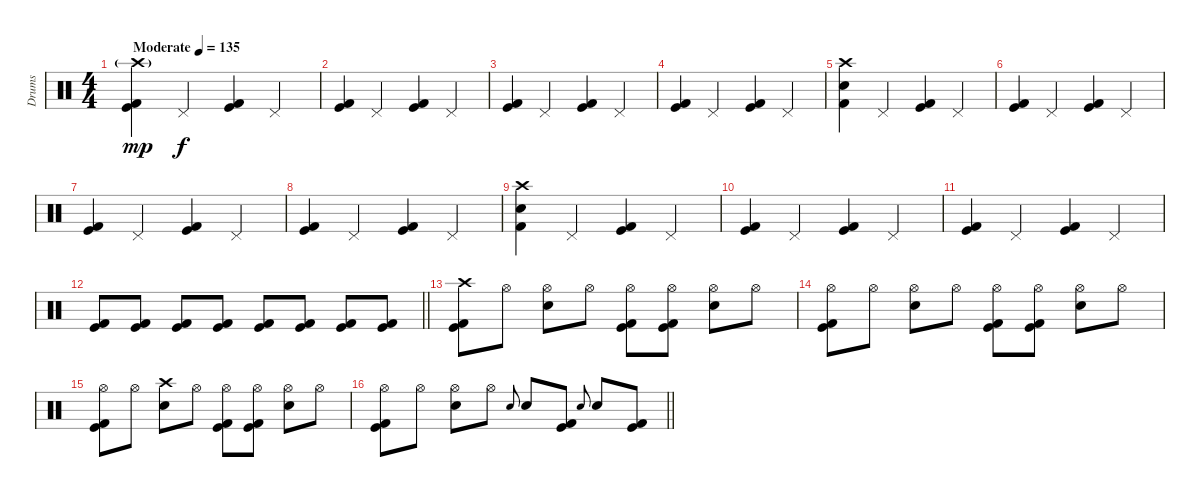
\track ("Drums" "Drums") {instrument percussion}
\staff {score}
\articulation defaults
\ts (4 4)
\tempo (135 "Moderate")
\clef neutral
\ks c
("Crash high (hit)"{g} "Kick (hit)" "Kick (hit) 2").4{dy mp} "Pedal Hi-Hat (hit)".4{dy f} ("Kick (hit)" "Kick (hit) 2").4 "Pedal Hi-Hat (hit)".4 |
("Kick (hit)" "Kick (hit) 2").4 "Pedal Hi-Hat (hit)".4 ("Kick (hit)" "Kick (hit) 2").4 "Pedal Hi-Hat (hit)".4 |
("Kick (hit)" "Kick (hit) 2").4 "Pedal Hi-Hat (hit)".4 ("Kick (hit)" "Kick (hit) 2").4 "Pedal Hi-Hat (hit)".4 |
("Kick (hit)" "Kick (hit) 2").4 "Pedal Hi-Hat (hit)".4 ("Kick (hit)" "Kick (hit) 2").4 "Pedal Hi-Hat (hit)".4 |
("Crash high (hit)" "Electric Snare (hit)" "Kick (hit) 2").4 "Pedal Hi-Hat (hit)".4 ("Kick (hit)" "Kick (hit) 2").4 "Pedal Hi-Hat (hit)".4 |
("Kick (hit)" "Kick (hit) 2").4 "Pedal Hi-Hat (hit)".4 ("Kick (hit)" "Kick (hit) 2").4 "Pedal Hi-Hat (hit)".4 |
("Kick (hit)" "Kick (hit) 2").4 "Pedal Hi-Hat (hit)".4 ("Kick (hit)" "Kick (hit) 2").4 "Pedal Hi-Hat (hit)".4 |
("Kick (hit)" "Kick (hit) 2").4 "Pedal Hi-Hat (hit)".4 ("Kick (hit)" "Kick (hit) 2").4 "Pedal Hi-Hat (hit)".4 |
("Crash high (hit)" "Electric Snare (hit)" "Kick (hit) 2").4 "Pedal Hi-Hat (hit)".4 ("Kick (hit)" "Kick (hit) 2").4 "Pedal Hi-Hat (hit)".4 |
("Kick (hit)" "Kick (hit) 2").4 "Pedal Hi-Hat (hit)".4 ("Kick (hit)" "Kick (hit) 2").4 "Pedal Hi-Hat (hit)".4 |
("Kick (hit)" "Kick (hit) 2").4 "Pedal Hi-Hat (hit)".4 ("Kick (hit)" "Kick (hit) 2").4 "Pedal Hi-Hat (hit)".4 |
\barLineRight lightlight
("Kick (hit)" "Kick (hit) 2").8 ("Kick (hit)" "Kick (hit) 2").8 ("Kick (hit)" "Kick (hit) 2").8 ("Kick (hit)" "Kick (hit) 2").8 ("Kick (hit)" "Kick (hit) 2").8 ("Kick (hit)" "Kick (hit) 2").8 ("Kick (hit)" "Kick (hit) 2").8 ("Kick (hit)" "Kick (hit) 2").8 |
\section ("" "")
("Crash high (hit)" "Kick (hit)" "Kick (hit) 2").8 "Hi-Hat (open)".8 ("Hi-Hat (open)" "Electric Snare (hit)").8 "Hi-Hat (open)".8 ("Hi-Hat (open)" "Kick (hit)" "Kick (hit) 2").8 ("Hi-Hat (open)" "Kick (hit)" "Kick (hit) 2").8 ("Hi-Hat (open)" "Electric Snare (hit)").8 "Hi-Hat (open)".8 |
("Hi-Hat (open)" "Kick (hit)" "Kick (hit) 2").8 "Hi-Hat (open)".8 ("Hi-Hat (open)" "Electric Snare (hit)").8 "Hi-Hat (open)".8 ("Hi-Hat (open)" "Kick (hit)" "Kick (hit) 2").8 ("Hi-Hat (open)" "Kick (hit)" "Kick (hit) 2").8 ("Hi-Hat (open)" "Electric Snare (hit)").8 "Hi-Hat (open)".8 |
("Hi-Hat (open)" "Kick (hit)" "Kick (hit) 2").8 "Hi-Hat (open)".8 ("Crash high (hit)" "Electric Snare (hit)").8 "Hi-Hat (open)".8 ("Hi-Hat (open)" "Kick (hit)" "Kick (hit) 2").8 ("Hi-Hat (open)" "Kick (hit)" "Kick (hit) 2").8 ("Hi-Hat (open)" "Electric Snare (hit)").8 "Hi-Hat (open)".8 |
\barLineRight lightlight
("Hi-Hat (open)" "Kick (hit)" "Kick (hit) 2").8 "Hi-Hat (open)".8 ("Hi-Hat (open)" "Electric Snare (hit)").8 "Hi-Hat (open)".8 "Electric Snare (hit)".8{gr onbeat} "Electric Snare (hit)".8 ("Kick (hit)" "Kick (hit) 2").8 "Electric Snare (hit)".8{gr onbeat} "Electric Snare (hit)".8 ("Kick (hit)" "Kick (hit) 2").8
